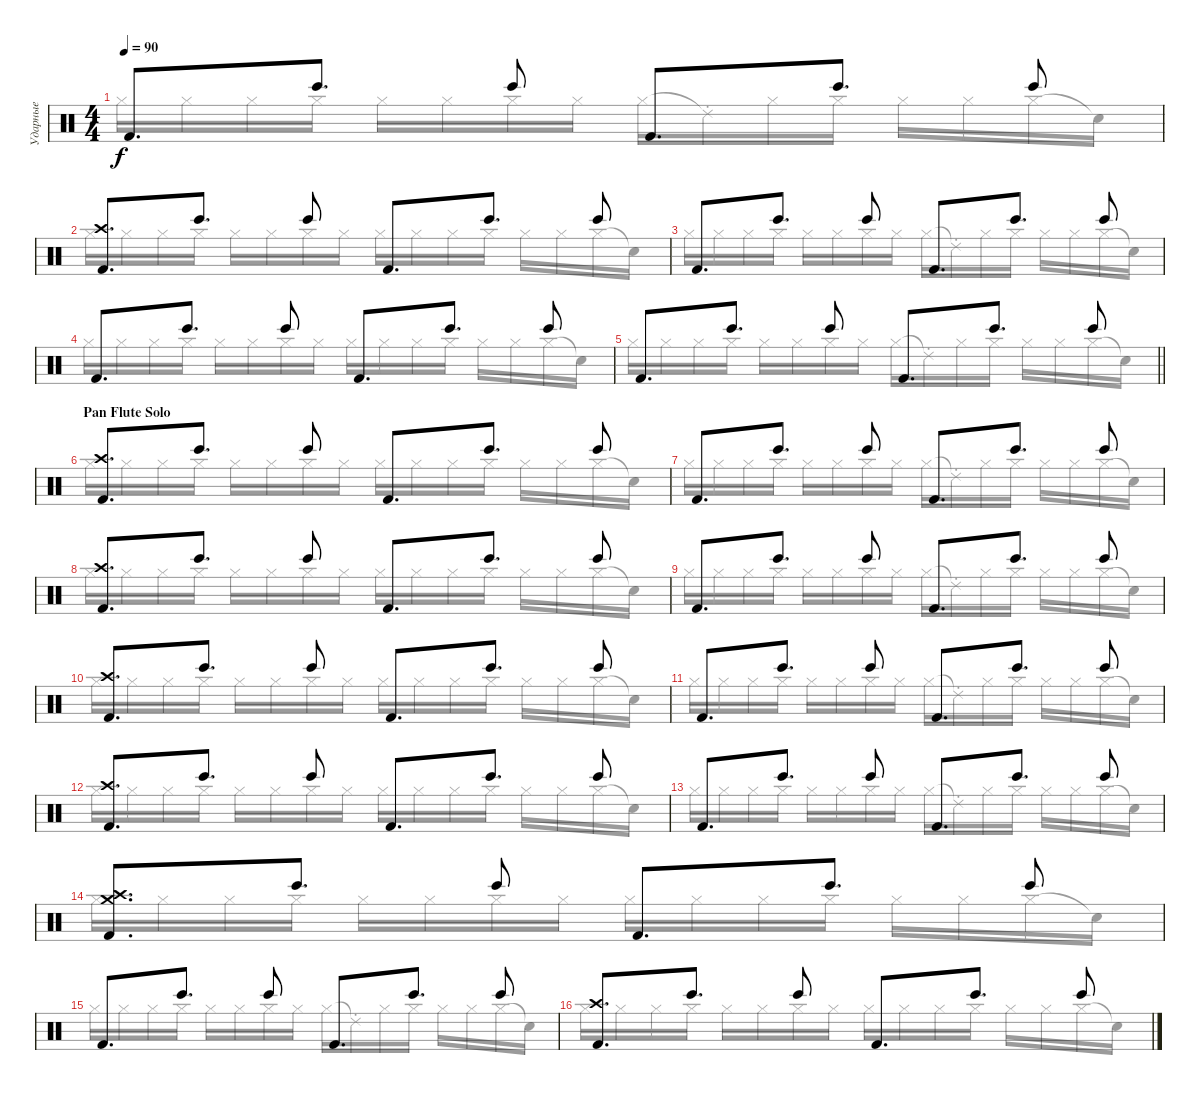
\track ("Ударные" "Ударные") {instrument percussion}
\staff {score}
\articulation defaults
\voice
\ts (4 4)
\tempo 90
\clef neutral
\ks c "Kick (hit) 2".8{d dy f} "Bongo High (hit)".8{d} "Bongo High (hit)".8 "Kick (hit) 2".8{d} "Bongo High (hit)".8{d} "Bongo High (hit)".8
|
("Kick (hit) 2" "Crash high (hit)").8{d} "Bongo High (hit)".8{d} "Bongo High (hit)".8 "Kick (hit) 2".8{d} "Bongo High (hit)".8{d} "Bongo High (hit)".8 |
"Kick (hit) 2".8{d} "Bongo High (hit)".8{d} "Bongo High (hit)".8 "Kick (hit) 2".8{d} "Bongo High (hit)".8{d} "Bongo High (hit)".8 |
"Kick (hit) 2".8{d} "Bongo High (hit)".8{d} "Bongo High (hit)".8 "Kick (hit) 2".8{d} "Bongo High (hit)".8{d} "Bongo High (hit)".8 |
\barLineRight lightlight "Kick (hit) 2".8{d} "Bongo High (hit)".8{d} "Bongo High (hit)".8 "Kick (hit) 2".8{d} "Bongo High (hit)".8{d} "Bongo High (hit)".8
|
\section ("" "Pan Flute Solo")
("Kick (hit) 2" "Crash high (hit)").8{d} "Bongo High (hit)".8{d} "Bongo High (hit)".8 "Kick (hit) 2".8{d} "Bongo High (hit)".8{d} "Bongo High (hit)".8 |
"Kick (hit) 2".8{d} "Bongo High (hit)".8{d} "Bongo High (hit)".8 "Kick (hit) 2".8{d} "Bongo High (hit)".8{d} "Bongo High (hit)".8 |
("Kick (hit) 2" "Crash high (hit)").8{d} "Bongo High (hit)".8{d} "Bongo High (hit)".8 "Kick (hit) 2".8{d} "Bongo High (hit)".8{d} "Bongo High (hit)".8 |
"Kick (hit) 2".8{d} "Bongo High (hit)".8{d} "Bongo High (hit)".8 "Kick (hit) 2".8{d} "Bongo High (hit)".8{d} "Bongo High (hit)".8 |
("Kick (hit) 2" "Crash high (hit)").8{d} "Bongo High (hit)".8{d} "Bongo High (hit)".8 "Kick (hit) 2".8{d} "Bongo High (hit)".8{d} "Bongo High (hit)".8 |
"Kick (hit) 2".8{d} "Bongo High (hit)".8{d} "Bongo High (hit)".8 "Kick (hit) 2".8{d} "Bongo High (hit)".8{d} "Bongo High (hit)".8 |
("Kick (hit) 2" "Crash high (hit)").8{d} "Bongo High (hit)".8{d} "Bongo High (hit)".8 "Kick (hit) 2".8{d} "Bongo High (hit)".8{d} "Bongo High (hit)".8 |
"Kick (hit) 2".8{d} "Bongo High (hit)".8{d} "Bongo High (hit)".8 "Kick (hit) 2".8{d} "Bongo High (hit)".8{d} "Bongo High (hit)".8 |
("Kick (hit) 2" "Crash high (hit)" "Crash medium (hit)").8{d} "Bongo High (hit)".8{d} "Bongo High (hit)".8 "Kick (hit) 2".8{d} "Bongo High (hit)".8{d} "Bongo High (hit)".8 |
"Kick (hit) 2".8{d} "Bongo High (hit)".8{d} "Bongo High (hit)".8 "Kick (hit) 2".8{d} "Bongo High (hit)".8{d} "Bongo High (hit)".8 |
("Kick (hit) 2" "Crash high (hit)").8{d} "Bongo High (hit)".8{d} "Bongo High (hit)".8 "Kick (hit) 2".8{d} "Bongo High (hit)".8{d} "Bongo High (hit)".8
\voice
\clef neutral
\ottava regular
\simile none
\ks c "Hi-Hat (closed)".16{dy f} "Hi-Hat (closed)".16 "Hi-Hat (closed)".16 "Hi-Hat (closed)".16 "Hi-Hat (closed)".16 "Hi-Hat (closed)".16 "Hi-Hat (closed)".16 "Hi-Hat (closed)".16 "Hi-Hat (closed)".16 "Ride (choke) 2"{t}.16 "Hi-Hat (closed)".16 "Hi-Hat (closed)".16 "Hi-Hat (closed)".16 "Hi-Hat (closed)".16 "Hi-Hat (closed)".16 "Snare (hit)"{t}.16
|
"Hi-Hat (closed)".16 "Hi-Hat (closed)".16 "Hi-Hat (closed)".16 "Hi-Hat (closed)".16 "Hi-Hat (closed)".16 "Hi-Hat (closed)".16 "Hi-Hat (closed)".16 "Hi-Hat (closed)".16 "Hi-Hat (closed)".16 "Hi-Hat (closed)".16 "Hi-Hat (closed)".16 "Hi-Hat (closed)".16 "Hi-Hat (closed)".16 "Hi-Hat (closed)".16 "Hi-Hat (closed)".16 "Snare (hit)"{t}.16 |
"Hi-Hat (closed)".16 "Hi-Hat (closed)".16 "Hi-Hat (closed)".16 "Hi-Hat (closed)".16 "Hi-Hat (closed)".16 "Hi-Hat (closed)".16 "Hi-Hat (closed)".16 "Hi-Hat (closed)".16 "Hi-Hat (closed)".16 "Ride (choke) 2"{t}.16 "Hi-Hat (closed)".16 "Hi-Hat (closed)".16 "Hi-Hat (closed)".16 "Hi-Hat (closed)".16 "Hi-Hat (closed)".16 "Snare (hit)"{t}.16 |
"Hi-Hat (closed)".16 "Hi-Hat (closed)".16 "Hi-Hat (closed)".16 "Hi-Hat (closed)".16 "Hi-Hat (closed)".16 "Hi-Hat (closed)".16 "Hi-Hat (closed)".16 "Hi-Hat (closed)".16 "Hi-Hat (closed)".16 "Hi-Hat (closed)".16 "Hi-Hat (closed)".16 "Hi-Hat (closed)".16 "Hi-Hat (closed)".16 "Hi-Hat (closed)".16 "Hi-Hat (closed)".16 "Snare (hit)"{t}.16 |
\barLineRight lightlight "Hi-Hat (closed)".16 "Hi-Hat (closed)".16 "Hi-Hat (closed)".16 "Hi-Hat (closed)".16 "Hi-Hat (closed)".16 "Hi-Hat (closed)".16 "Hi-Hat (closed)".16 "Hi-Hat (closed)".16 "Hi-Hat (closed)".16 "Ride (choke) 2"{t}.16 "Hi-Hat (closed)".16 "Hi-Hat (closed)".16 "Hi-Hat (closed)".16 "Hi-Hat (closed)".16 "Hi-Hat (closed)".16 "Snare (hit)"{t}.16
|
"Hi-Hat (closed)".16 "Hi-Hat (closed)".16 "Hi-Hat (closed)".16 "Hi-Hat (closed)".16 "Hi-Hat (closed)".16 "Hi-Hat (closed)".16 "Hi-Hat (closed)".16 "Hi-Hat (closed)".16 "Hi-Hat (closed)".16 "Hi-Hat (closed)".16 "Hi-Hat (closed)".16 "Hi-Hat (closed)".16 "Hi-Hat (closed)".16 "Hi-Hat (closed)".16 "Hi-Hat (closed)".16 "Snare (hit)"{t}.16 |
"Hi-Hat (closed)".16 "Hi-Hat (closed)".16 "Hi-Hat (closed)".16 "Hi-Hat (closed)".16 "Hi-Hat (closed)".16 "Hi-Hat (closed)".16 "Hi-Hat (closed)".16 "Hi-Hat (closed)".16 "Hi-Hat (closed)".16 "Ride (choke) 2"{t}.16 "Hi-Hat (closed)".16 "Hi-Hat (closed)".16 "Hi-Hat (closed)".16 "Hi-Hat (closed)".16 "Hi-Hat (closed)".16 "Snare (hit)"{t}.16 |
"Hi-Hat (closed)".16 "Hi-Hat (closed)".16 "Hi-Hat (closed)".16 "Hi-Hat (closed)".16 "Hi-Hat (closed)".16 "Hi-Hat (closed)".16 "Hi-Hat (closed)".16 "Hi-Hat (closed)".16 "Hi-Hat (closed)".16 "Hi-Hat (closed)".16 "Hi-Hat (closed)".16 "Hi-Hat (closed)".16 "Hi-Hat (closed)".16 "Hi-Hat (closed)".16 "Hi-Hat (closed)".16 "Snare (hit)"{t}.16 |
"Hi-Hat (closed)".16 "Hi-Hat (closed)".16 "Hi-Hat (closed)".16 "Hi-Hat (closed)".16 "Hi-Hat (closed)".16 "Hi-Hat (closed)".16 "Hi-Hat (closed)".16 "Hi-Hat (closed)".16 "Hi-Hat (closed)".16 "Ride (choke) 2"{t}.16 "Hi-Hat (closed)".16 "Hi-Hat (closed)".16 "Hi-Hat (closed)".16 "Hi-Hat (closed)".16 "Hi-Hat (closed)".16 "Snare (hit)"{t}.16 |
"Hi-Hat (closed)".16 "Hi-Hat (closed)".16 "Hi-Hat (closed)".16 "Hi-Hat (closed)".16 "Hi-Hat (closed)".16 "Hi-Hat (closed)".16 "Hi-Hat (closed)".16 "Hi-Hat (closed)".16 "Hi-Hat (closed)".16 "Hi-Hat (closed)".16 "Hi-Hat (closed)".16 "Hi-Hat (closed)".16 "Hi-Hat (closed)".16 "Hi-Hat (closed)".16 "Hi-Hat (closed)".16 "Snare (hit)"{t}.16 |
"Hi-Hat (closed)".16 "Hi-Hat (closed)".16 "Hi-Hat (closed)".16 "Hi-Hat (closed)".16 "Hi-Hat (closed)".16 "Hi-Hat (closed)".16 "Hi-Hat (closed)".16 "Hi-Hat (closed)".16 "Hi-Hat (closed)".16 "Ride (choke) 2"{t}.16 "Hi-Hat (closed)".16 "Hi-Hat (closed)".16 "Hi-Hat (closed)".16 "Hi-Hat (closed)".16 "Hi-Hat (closed)".16 "Snare (hit)"{t}.16 |
"Hi-Hat (closed)".16 "Hi-Hat (closed)".16 "Hi-Hat (closed)".16 "Hi-Hat (closed)".16 "Hi-Hat (closed)".16 "Hi-Hat (closed)".16 "Hi-Hat (closed)".16 "Hi-Hat (closed)".16 "Hi-Hat (closed)".16 "Hi-Hat (closed)".16 "Hi-Hat (closed)".16 "Hi-Hat (closed)".16 "Hi-Hat (closed)".16 "Hi-Hat (closed)".16 "Hi-Hat (closed)".16 "Snare (hit)"{t}.16 |
"Hi-Hat (closed)".16 "Hi-Hat (closed)".16 "Hi-Hat (closed)".16 "Hi-Hat (closed)".16 "Hi-Hat (closed)".16 "Hi-Hat (closed)".16 "Hi-Hat (closed)".16 "Hi-Hat (closed)".16 "Hi-Hat (closed)".16 "Ride (choke) 2"{t}.16 "Hi-Hat (closed)".16 "Hi-Hat (closed)".16 "Hi-Hat (closed)".16 "Hi-Hat (closed)".16 "Hi-Hat (closed)".16 "Snare (hit)"{t}.16 |
"Hi-Hat (closed)".16 "Hi-Hat (closed)".16 "Hi-Hat (closed)".16 "Hi-Hat (closed)".16 "Hi-Hat (closed)".16 "Hi-Hat (closed)".16 "Hi-Hat (closed)".16 "Hi-Hat (closed)".16 "Hi-Hat (closed)".16 "Hi-Hat (closed)".16 "Hi-Hat (closed)".16 "Hi-Hat (closed)".16 "Hi-Hat (closed)".16 "Hi-Hat (closed)".16 "Hi-Hat (closed)".16 "Snare (hit)"{t}.16 |
"Hi-Hat (closed)".16 "Hi-Hat (closed)".16 "Hi-Hat (closed)".16 "Hi-Hat (closed)".16 "Hi-Hat (closed)".16 "Hi-Hat (closed)".16 "Hi-Hat (closed)".16 "Hi-Hat (closed)".16 "Hi-Hat (closed)".16 "Ride (choke) 2"{t}.16 "Hi-Hat (closed)".16 "Hi-Hat (closed)".16 "Hi-Hat (closed)".16 "Hi-Hat (closed)".16 "Hi-Hat (closed)".16 "Snare (hit)"{t}.16 |
"Hi-Hat (closed)".16 "Hi-Hat (closed)".16 "Hi-Hat (closed)".16 "Hi-Hat (closed)".16 "Hi-Hat (closed)".16 "Hi-Hat (closed)".16 "Hi-Hat (closed)".16 "Hi-Hat (closed)".16 "Hi-Hat (closed)".16 "Hi-Hat (closed)".16 "Hi-Hat (closed)".16 "Hi-Hat (closed)".16 "Hi-Hat (closed)".16 "Hi-Hat (closed)".16 "Hi-Hat (closed)".16 "Snare (hit)"{t}.16
